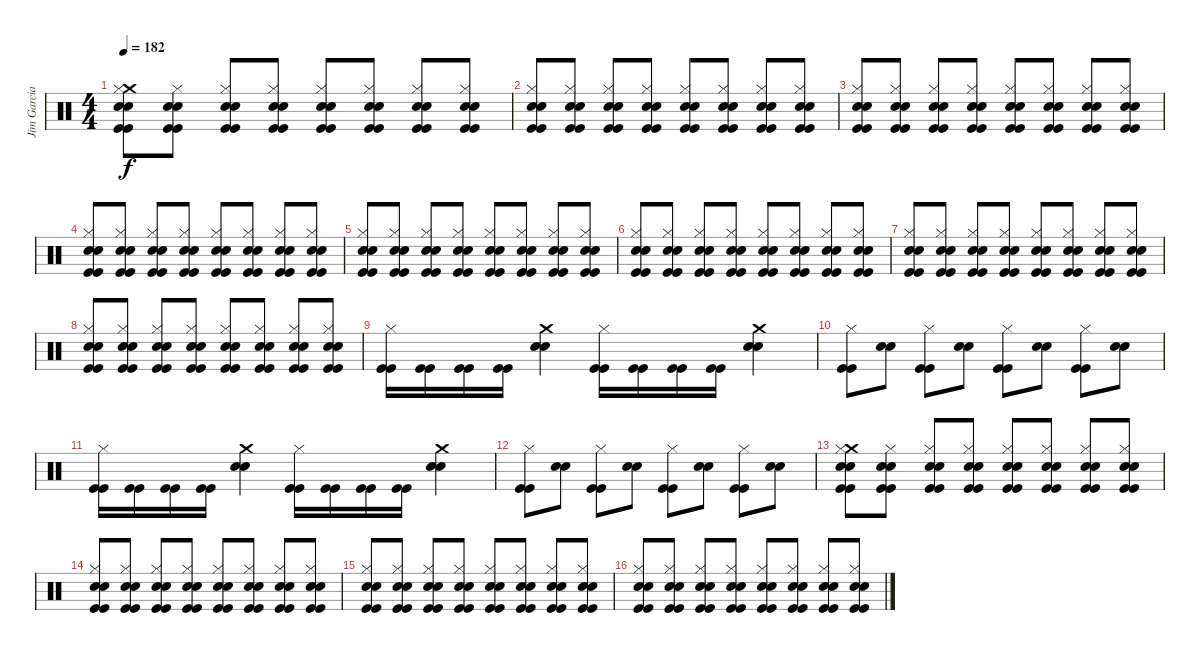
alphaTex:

\track ("Jim Garcia" "Jim Garcia") {instrument percussion}
\staff {score}
\articulation defaults
\ts (4 4)
\tempo 182
\clef neutral
\ks c
("Crash medium (hit)" "Snare (hit) 2" "Snare (hit) 2" "Hi-Hat (closed)" "Kick (hit)" "Kick (hit)").8{dy f} ("Snare (hit) 2" "Snare (hit) 2" "Hi-Hat (closed)" "Kick (hit)" "Kick (hit)").8 ("Snare (hit) 2" "Snare (hit) 2" "Hi-Hat (closed)" "Kick (hit)" "Kick (hit)").8 ("Snare (hit) 2" "Snare (hit) 2" "Hi-Hat (closed)" "Kick (hit)" "Kick (hit)").8 ("Snare (hit) 2" "Snare (hit) 2" "Hi-Hat (closed)" "Kick (hit)" "Kick (hit)").8 ("Snare (hit) 2" "Snare (hit) 2" "Hi-Hat (closed)" "Kick (hit)" "Kick (hit)").8 ("Snare (hit) 2" "Snare (hit) 2" "Hi-Hat (closed)" "Kick (hit)" "Kick (hit)").8 ("Snare (hit) 2" "Snare (hit) 2" "Hi-Hat (closed)" "Kick (hit)" "Kick (hit)").8 |
("Snare (hit) 2" "Snare (hit) 2" "Hi-Hat (closed)" "Kick (hit)" "Kick (hit)").8 ("Snare (hit) 2" "Snare (hit) 2" "Hi-Hat (closed)" "Kick (hit)" "Kick (hit)").8 ("Snare (hit) 2" "Snare (hit) 2" "Hi-Hat (closed)" "Kick (hit)" "Kick (hit)").8 ("Snare (hit) 2" "Snare (hit) 2" "Hi-Hat (closed)" "Kick (hit)" "Kick (hit)").8 ("Snare (hit) 2" "Snare (hit) 2" "Hi-Hat (closed)" "Kick (hit)" "Kick (hit)").8 ("Snare (hit) 2" "Snare (hit) 2" "Hi-Hat (closed)" "Kick (hit)" "Kick (hit)").8 ("Snare (hit) 2" "Snare (hit) 2" "Hi-Hat (closed)" "Kick (hit)" "Kick (hit)").8 ("Snare (hit) 2" "Snare (hit) 2" "Hi-Hat (closed)" "Kick (hit)" "Kick (hit)").8 |
("Snare (hit) 2" "Snare (hit) 2" "Hi-Hat (closed)" "Kick (hit)" "Kick (hit)").8 ("Snare (hit) 2" "Snare (hit) 2" "Hi-Hat (closed)" "Kick (hit)" "Kick (hit)").8 ("Snare (hit) 2" "Snare (hit) 2" "Hi-Hat (closed)" "Kick (hit)" "Kick (hit)").8 ("Snare (hit) 2" "Snare (hit) 2" "Hi-Hat (closed)" "Kick (hit)" "Kick (hit)").8 ("Snare (hit) 2" "Snare (hit) 2" "Hi-Hat (closed)" "Kick (hit)" "Kick (hit)").8 ("Snare (hit) 2" "Snare (hit) 2" "Hi-Hat (closed)" "Kick (hit)" "Kick (hit)").8 ("Snare (hit) 2" "Snare (hit) 2" "Hi-Hat (closed)" "Kick (hit)" "Kick (hit)").8 ("Snare (hit) 2" "Snare (hit) 2" "Hi-Hat (closed)" "Kick (hit)" "Kick (hit)").8 |
("Snare (hit) 2" "Snare (hit) 2" "Hi-Hat (closed)" "Kick (hit)" "Kick (hit)").8 ("Snare (hit) 2" "Snare (hit) 2" "Hi-Hat (closed)" "Kick (hit)" "Kick (hit)").8 ("Snare (hit) 2" "Snare (hit) 2" "Hi-Hat (closed)" "Kick (hit)" "Kick (hit)").8 ("Snare (hit) 2" "Snare (hit) 2" "Hi-Hat (closed)" "Kick (hit)" "Kick (hit)").8 ("Snare (hit) 2" "Snare (hit) 2" "Hi-Hat (closed)" "Kick (hit)" "Kick (hit)").8 ("Snare (hit) 2" "Snare (hit) 2" "Hi-Hat (closed)" "Kick (hit)" "Kick (hit)").8 ("Snare (hit) 2" "Snare (hit) 2" "Hi-Hat (closed)" "Kick (hit)" "Kick (hit)").8 ("Snare (hit) 2" "Snare (hit) 2" "Hi-Hat (closed)" "Kick (hit)" "Kick (hit)").8 |
("Snare (hit) 2" "Snare (hit) 2" "Hi-Hat (closed)" "Kick (hit)" "Kick (hit)").8 ("Snare (hit) 2" "Snare (hit) 2" "Hi-Hat (closed)" "Kick (hit)" "Kick (hit)").8 ("Snare (hit) 2" "Snare (hit) 2" "Hi-Hat (closed)" "Kick (hit)" "Kick (hit)").8 ("Snare (hit) 2" "Snare (hit) 2" "Hi-Hat (closed)" "Kick (hit)" "Kick (hit)").8 ("Snare (hit) 2" "Snare (hit) 2" "Hi-Hat (closed)" "Kick (hit)" "Kick (hit)").8 ("Snare (hit) 2" "Snare (hit) 2" "Hi-Hat (closed)" "Kick (hit)" "Kick (hit)").8 ("Snare (hit) 2" "Snare (hit) 2" "Hi-Hat (closed)" "Kick (hit)" "Kick (hit)").8 ("Snare (hit) 2" "Snare (hit) 2" "Hi-Hat (closed)" "Kick (hit)" "Kick (hit)").8 |
("Snare (hit) 2" "Snare (hit) 2" "Hi-Hat (closed)" "Kick (hit)" "Kick (hit)").8 ("Snare (hit) 2" "Snare (hit) 2" "Hi-Hat (closed)" "Kick (hit)" "Kick (hit)").8 ("Snare (hit) 2" "Snare (hit) 2" "Hi-Hat (closed)" "Kick (hit)" "Kick (hit)").8 ("Snare (hit) 2" "Snare (hit) 2" "Hi-Hat (closed)" "Kick (hit)" "Kick (hit)").8 ("Snare (hit) 2" "Snare (hit) 2" "Hi-Hat (closed)" "Kick (hit)" "Kick (hit)").8 ("Snare (hit) 2" "Snare (hit) 2" "Hi-Hat (closed)" "Kick (hit)" "Kick (hit)").8 ("Snare (hit) 2" "Snare (hit) 2" "Hi-Hat (closed)" "Kick (hit)" "Kick (hit)").8 ("Snare (hit) 2" "Snare (hit) 2" "Hi-Hat (closed)" "Kick (hit)" "Kick (hit)").8 |
("Snare (hit) 2" "Snare (hit) 2" "Hi-Hat (closed)" "Kick (hit)" "Kick (hit)").8 ("Snare (hit) 2" "Snare (hit) 2" "Hi-Hat (closed)" "Kick (hit)" "Kick (hit)").8 ("Snare (hit) 2" "Snare (hit) 2" "Hi-Hat (closed)" "Kick (hit)" "Kick (hit)").8 ("Snare (hit) 2" "Snare (hit) 2" "Hi-Hat (closed)" "Kick (hit)" "Kick (hit)").8 ("Snare (hit) 2" "Snare (hit) 2" "Hi-Hat (closed)" "Kick (hit)" "Kick (hit)").8 ("Snare (hit) 2" "Snare (hit) 2" "Hi-Hat (closed)" "Kick (hit)" "Kick (hit)").8 ("Snare (hit) 2" "Snare (hit) 2" "Hi-Hat (closed)" "Kick (hit)" "Kick (hit)").8 ("Snare (hit) 2" "Snare (hit) 2" "Hi-Hat (closed)" "Kick (hit)" "Kick (hit)").8 |
("Snare (hit) 2" "Snare (hit) 2" "Hi-Hat (closed)" "Kick (hit)" "Kick (hit)").8 ("Snare (hit) 2" "Snare (hit) 2" "Hi-Hat (closed)" "Kick (hit)" "Kick (hit)").8 ("Snare (hit) 2" "Snare (hit) 2" "Hi-Hat (closed)" "Kick (hit)" "Kick (hit)").8 ("Snare (hit) 2" "Snare (hit) 2" "Hi-Hat (closed)" "Kick (hit)" "Kick (hit)").8 ("Snare (hit) 2" "Snare (hit) 2" "Hi-Hat (closed)" "Kick (hit)" "Kick (hit)").8 ("Snare (hit) 2" "Snare (hit) 2" "Hi-Hat (closed)" "Kick (hit)" "Kick (hit)").8 ("Snare (hit) 2" "Snare (hit) 2" "Hi-Hat (closed)" "Kick (hit)" "Kick (hit)").8 ("Snare (hit) 2" "Snare (hit) 2" "Hi-Hat (closed)" "Kick (hit)" "Kick (hit)").8 |
("Hi-Hat (closed)" "Kick (hit)" "Kick (hit)").16 ("Kick (hit)" "Kick (hit)").16 ("Kick (hit)" "Kick (hit)").16 ("Kick (hit)" "Kick (hit)").16 ("Crash medium (hit)" "Snare (hit) 2" "Snare (hit) 2").4 ("Hi-Hat (closed)" "Kick (hit)" "Kick (hit)").16 ("Kick (hit)" "Kick (hit)").16 ("Kick (hit)" "Kick (hit)").16 ("Kick (hit)" "Kick (hit)").16 ("Crash medium (hit)" "Snare (hit) 2" "Snare (hit) 2").4 |
("Hi-Hat (closed)" "Kick (hit)" "Kick (hit)").8 ("Snare (hit) 2" "Snare (hit) 2").8 ("Hi-Hat (closed)" "Kick (hit)" "Kick (hit)").8 ("Snare (hit) 2" "Snare (hit) 2").8 ("Hi-Hat (closed)" "Kick (hit)" "Kick (hit)").8 ("Snare (hit) 2" "Snare (hit) 2").8 ("Hi-Hat (closed)" "Kick (hit)" "Kick (hit)").8 ("Snare (hit) 2" "Snare (hit) 2").8 |
("Hi-Hat (closed)" "Kick (hit)" "Kick (hit)").16 ("Kick (hit)" "Kick (hit)").16 ("Kick (hit)" "Kick (hit)").16 ("Kick (hit)" "Kick (hit)").16 ("Crash medium (hit)" "Snare (hit) 2" "Snare (hit) 2").4 ("Hi-Hat (closed)" "Kick (hit)" "Kick (hit)").16 ("Kick (hit)" "Kick (hit)").16 ("Kick (hit)" "Kick (hit)").16 ("Kick (hit)" "Kick (hit)").16 ("Crash medium (hit)" "Snare (hit) 2" "Snare (hit) 2").4 |
("Hi-Hat (closed)" "Kick (hit)" "Kick (hit)").8 ("Snare (hit) 2" "Snare (hit) 2").8 ("Hi-Hat (closed)" "Kick (hit)" "Kick (hit)").8 ("Snare (hit) 2" "Snare (hit) 2").8 ("Hi-Hat (closed)" "Kick (hit)" "Kick (hit)").8 ("Snare (hit) 2" "Snare (hit) 2").8 ("Hi-Hat (closed)" "Kick (hit)" "Kick (hit)").8 ("Snare (hit) 2" "Snare (hit) 2").8 |
("Crash medium (hit)" "Snare (hit) 2" "Snare (hit) 2" "Hi-Hat (closed)" "Kick (hit)" "Kick (hit)").8 ("Snare (hit) 2" "Snare (hit) 2" "Hi-Hat (closed)" "Kick (hit)" "Kick (hit)").8 ("Snare (hit) 2" "Snare (hit) 2" "Hi-Hat (closed)" "Kick (hit)" "Kick (hit)").8 ("Snare (hit) 2" "Snare (hit) 2" "Hi-Hat (closed)" "Kick (hit)" "Kick (hit)").8 ("Snare (hit) 2" "Snare (hit) 2" "Hi-Hat (closed)" "Kick (hit)" "Kick (hit)").8 ("Snare (hit) 2" "Snare (hit) 2" "Hi-Hat (closed)" "Kick (hit)" "Kick (hit)").8 ("Snare (hit) 2" "Snare (hit) 2" "Hi-Hat (closed)" "Kick (hit)" "Kick (hit)").8 ("Snare (hit) 2" "Snare (hit) 2" "Hi-Hat (closed)" "Kick (hit)" "Kick (hit)").8 |
("Snare (hit) 2" "Snare (hit) 2" "Hi-Hat (closed)" "Kick (hit)" "Kick (hit)").8 ("Snare (hit) 2" "Snare (hit) 2" "Hi-Hat (closed)" "Kick (hit)" "Kick (hit)").8 ("Snare (hit) 2" "Snare (hit) 2" "Hi-Hat (closed)" "Kick (hit)" "Kick (hit)").8 ("Snare (hit) 2" "Snare (hit) 2" "Hi-Hat (closed)" "Kick (hit)" "Kick (hit)").8 ("Snare (hit) 2" "Snare (hit) 2" "Hi-Hat (closed)" "Kick (hit)" "Kick (hit)").8 ("Snare (hit) 2" "Snare (hit) 2" "Hi-Hat (closed)" "Kick (hit)" "Kick (hit)").8 ("Snare (hit) 2" "Snare (hit) 2" "Hi-Hat (closed)" "Kick (hit)" "Kick (hit)").8 ("Snare (hit) 2" "Snare (hit) 2" "Hi-Hat (closed)" "Kick (hit)" "Kick (hit)").8 |
("Snare (hit) 2" "Snare (hit) 2" "Hi-Hat (closed)" "Kick (hit)" "Kick (hit)").8 ("Snare (hit) 2" "Snare (hit) 2" "Hi-Hat (closed)" "Kick (hit)" "Kick (hit)").8 ("Snare (hit) 2" "Snare (hit) 2" "Hi-Hat (closed)" "Kick (hit)" "Kick (hit)").8 ("Snare (hit) 2" "Snare (hit) 2" "Hi-Hat (closed)" "Kick (hit)" "Kick (hit)").8 ("Snare (hit) 2" "Snare (hit) 2" "Hi-Hat (closed)" "Kick (hit)" "Kick (hit)").8 ("Snare (hit) 2" "Snare (hit) 2" "Hi-Hat (closed)" "Kick (hit)" "Kick (hit)").8 ("Snare (hit) 2" "Snare (hit) 2" "Hi-Hat (closed)" "Kick (hit)" "Kick (hit)").8 ("Snare (hit) 2" "Snare (hit) 2" "Hi-Hat (closed)" "Kick (hit)" "Kick (hit)").8 |
("Snare (hit) 2" "Snare (hit) 2" "Hi-Hat (closed)" "Kick (hit)" "Kick (hit)").8 ("Snare (hit) 2" "Snare (hit) 2" "Hi-Hat (closed)" "Kick (hit)" "Kick (hit)").8 ("Snare (hit) 2" "Snare (hit) 2" "Hi-Hat (closed)" "Kick (hit)" "Kick (hit)").8 ("Snare (hit) 2" "Snare (hit) 2" "Hi-Hat (closed)" "Kick (hit)" "Kick (hit)").8 ("Snare (hit) 2" "Snare (hit) 2" "Hi-Hat (closed)" "Kick (hit)" "Kick (hit)").8 ("Snare (hit) 2" "Snare (hit) 2" "Hi-Hat (closed)" "Kick (hit)" "Kick (hit)").8 ("Snare (hit) 2" "Snare (hit) 2" "Hi-Hat (closed)" "Kick (hit)" "Kick (hit)").8 ("Snare (hit) 2" "Snare (hit) 2" "Hi-Hat (closed)" "Kick (hit)" "Kick (hit)").8
